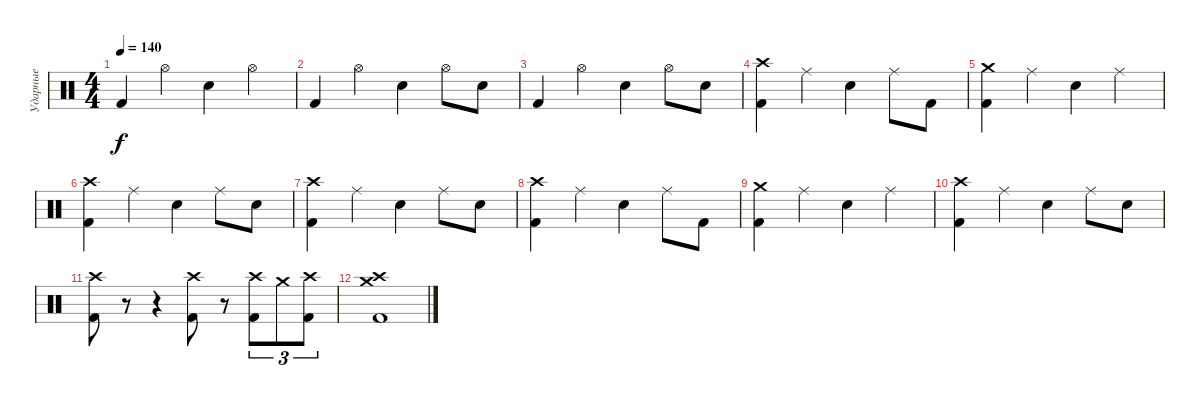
\track ("Ударные" "Ударные") {instrument percussion}
\staff {score}
\articulation defaults
\ts (4 4)
\tempo 140
\clef neutral
\ks c "Kick (hit) 2".4{dy f} "Hi-Hat (open)".4 "Electric Snare (hit)".4 "Hi-Hat (open)".4
|
"Kick (hit) 2".4 "Hi-Hat (open)".4 "Electric Snare (hit)".4 "Hi-Hat (open)".8 "Electric Snare (hit)".8 |
"Kick (hit) 2".4 "Hi-Hat (open)".4 "Electric Snare (hit)".4 "Hi-Hat (open)".8 "Electric Snare (hit)".8 |
("Crash high (hit)" "Kick (hit) 2").4 "Ride (middle)".4 "Electric Snare (hit)".4 "Ride (middle)".8 "Kick (hit) 2".8 |
("Crash medium (hit)" "Kick (hit) 2").4 "Ride (middle)".4 "Electric Snare (hit)".4 "Ride (middle)".4 |
("Crash high (hit)" "Kick (hit) 2").4 "Ride (middle)".4 "Electric Snare (hit)".4 "Ride (middle)".8 "Electric Snare (hit)".8 |
("Crash high (hit)" "Kick (hit) 2").4 "Ride (middle)".4 "Electric Snare (hit)".4 "Ride (middle)".8 "Electric Snare (hit)".8 |
("Crash high (hit)" "Kick (hit) 2").4 "Ride (middle)".4 "Electric Snare (hit)".4 "Ride (middle)".8 "Kick (hit) 2".8 |
("Crash medium (hit)" "Kick (hit) 2").4 "Ride (middle)".4 "Electric Snare (hit)".4 "Ride (middle)".4 |
("Crash high (hit)" "Kick (hit) 2").4 "Ride (middle)".4 "Electric Snare (hit)".4 "Ride (middle)".8 "Electric Snare (hit)".8 |
("Crash high (hit)" "Kick (hit) 2").8 r.8 r.4 ("Crash high (hit)" "Kick (hit) 2").8 r.8 ("Crash high (hit)" "Kick (hit) 2").8{tu (3 2)} "Crash medium (hit)".8{tu (3 2)} ("Crash high (hit)" "Kick (hit) 2").8{tu (3 2)} |
("Crash high (hit)" "Crash medium (hit)" "Kick (hit) 2").1
